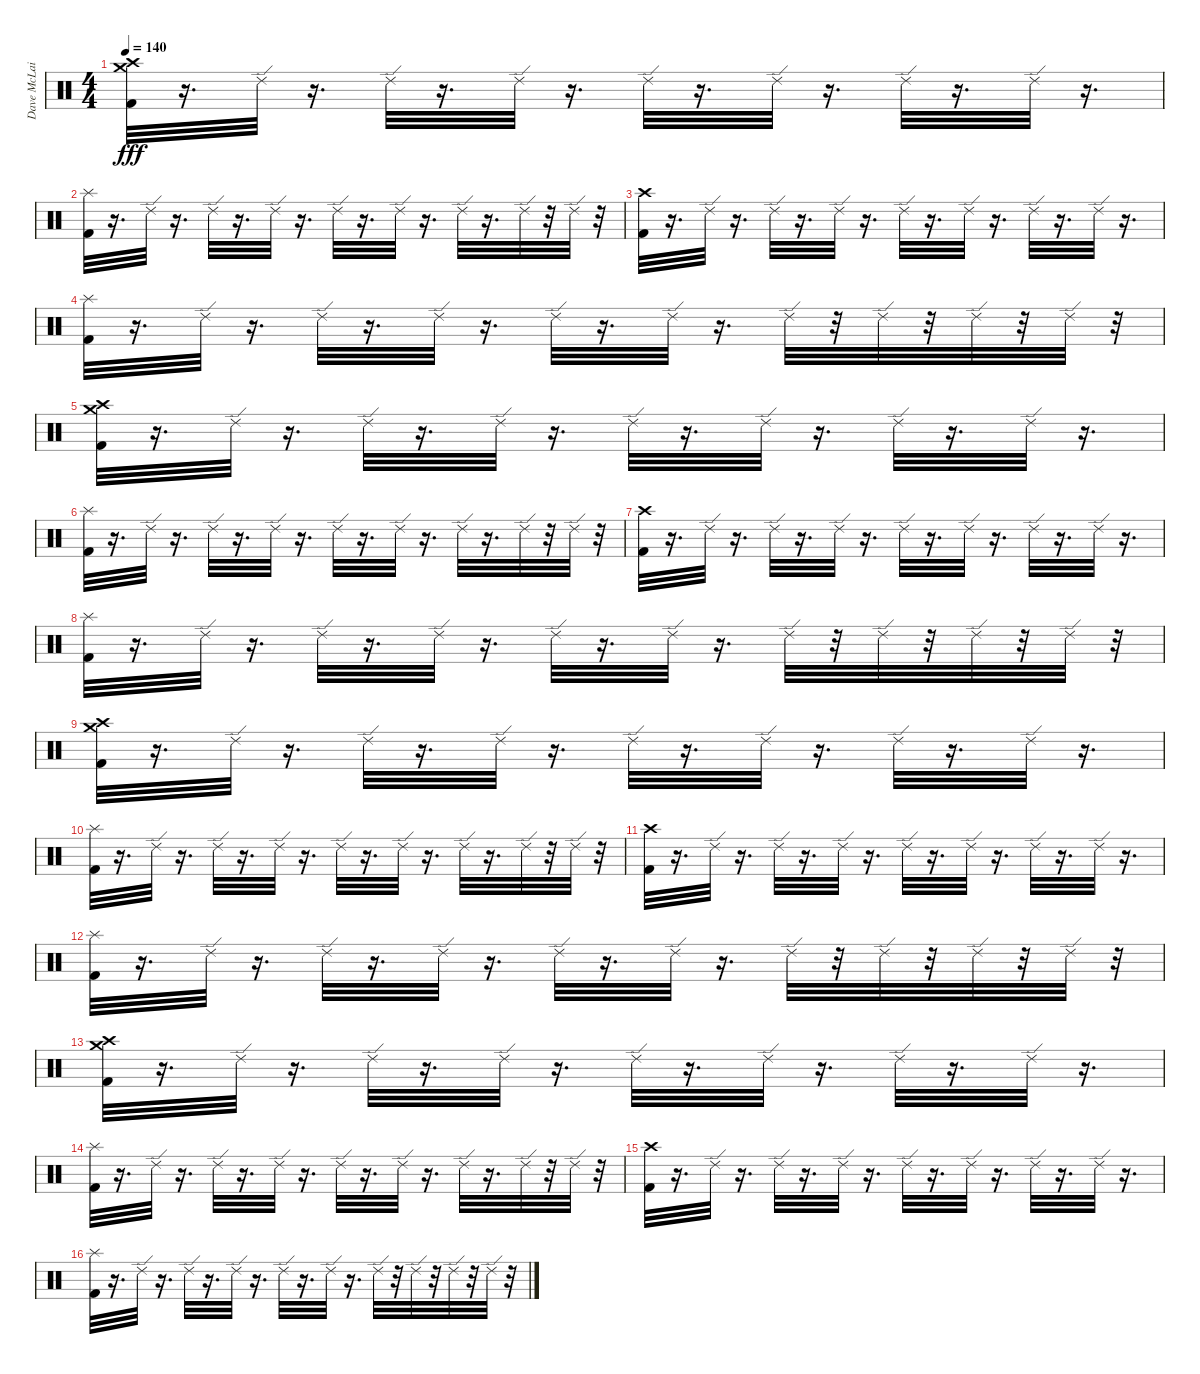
\track ("Dave McLain" "Dave McLai") {instrument percussion}
\staff {score}
\articulation defaults
\ts (4 4)
\tempo 140
\clef neutral
\ks c
("Crash medium (hit)" "Crash high (hit)" "Kick (hit) 2").32{dy fff} r.16{d} "Ride (edge) 2".32 r.16{d} "Ride (edge) 2".32 r.16{d} "Ride (edge) 2".32 r.16{d} "Ride (edge) 2".32 r.16{d} "Ride (edge) 2".32 r.16{d} "Ride (edge) 2".32 r.16{d} "Ride (edge) 2".32 r.16{d} |
("Splash (hit)" "Kick (hit) 2").32 r.16{d} "Ride (edge) 2".32 r.16{d} "Ride (edge) 2".32 r.16{d} "Ride (edge) 2".32 r.16{d} "Ride (edge) 2".32 r.16{d} "Ride (edge) 2".32 r.16{d} "Ride (edge) 2".32 r.16{d} "Ride (edge) 2".32 r.32 "Ride (edge) 2".32 r.32 |
("Crash high (hit)" "Kick (hit) 2").32 r.16{d} "Ride (edge) 2".32 r.16{d} "Ride (edge) 2".32 r.16{d} "Ride (edge) 2".32 r.16{d} "Ride (edge) 2".32 r.16{d} "Ride (edge) 2".32 r.16{d} "Ride (edge) 2".32 r.16{d} "Ride (edge) 2".32 r.16{d} |
("Splash (hit)" "Kick (hit) 2").32 r.16{d} "Ride (edge) 2".32 r.16{d} "Ride (edge) 2".32 r.16{d} "Ride (edge) 2".32 r.16{d} "Ride (edge) 2".32 r.16{d} "Ride (edge) 2".32 r.16{d} "Ride (edge) 2".32 r.32 "Ride (edge) 2".32 r.32 "Ride (edge) 2".32 r.32 "Ride (edge) 2".32 r.32 |
("Crash medium (hit)" "Crash high (hit)" "Kick (hit) 2").32 r.16{d} "Ride (edge) 2".32 r.16{d} "Ride (edge) 2".32 r.16{d} "Ride (edge) 2".32 r.16{d} "Ride (edge) 2".32 r.16{d} "Ride (edge) 2".32 r.16{d} "Ride (edge) 2".32 r.16{d} "Ride (edge) 2".32 r.16{d} |
("Splash (hit)" "Kick (hit) 2").32 r.16{d} "Ride (edge) 2".32 r.16{d} "Ride (edge) 2".32 r.16{d} "Ride (edge) 2".32 r.16{d} "Ride (edge) 2".32 r.16{d} "Ride (edge) 2".32 r.16{d} "Ride (edge) 2".32 r.16{d} "Ride (edge) 2".32 r.32 "Ride (edge) 2".32 r.32 |
("Crash high (hit)" "Kick (hit) 2").32 r.16{d} "Ride (edge) 2".32 r.16{d} "Ride (edge) 2".32 r.16{d} "Ride (edge) 2".32 r.16{d} "Ride (edge) 2".32 r.16{d} "Ride (edge) 2".32 r.16{d} "Ride (edge) 2".32 r.16{d} "Ride (edge) 2".32 r.16{d} |
("Splash (hit)" "Kick (hit) 2").32 r.16{d} "Ride (edge) 2".32 r.16{d} "Ride (edge) 2".32 r.16{d} "Ride (edge) 2".32 r.16{d} "Ride (edge) 2".32 r.16{d} "Ride (edge) 2".32 r.16{d} "Ride (edge) 2".32 r.32 "Ride (edge) 2".32 r.32 "Ride (edge) 2".32 r.32 "Ride (edge) 2".32 r.32 |
("Crash medium (hit)" "Crash high (hit)" "Kick (hit) 2").32 r.16{d} "Ride (edge) 2".32 r.16{d} "Ride (edge) 2".32 r.16{d} "Ride (edge) 2".32 r.16{d} "Ride (edge) 2".32 r.16{d} "Ride (edge) 2".32 r.16{d} "Ride (edge) 2".32 r.16{d} "Ride (edge) 2".32 r.16{d} |
("Splash (hit)" "Kick (hit) 2").32 r.16{d} "Ride (edge) 2".32 r.16{d} "Ride (edge) 2".32 r.16{d} "Ride (edge) 2".32 r.16{d} "Ride (edge) 2".32 r.16{d} "Ride (edge) 2".32 r.16{d} "Ride (edge) 2".32 r.16{d} "Ride (edge) 2".32 r.32 "Ride (edge) 2".32 r.32 |
("Crash high (hit)" "Kick (hit) 2").32 r.16{d} "Ride (edge) 2".32 r.16{d} "Ride (edge) 2".32 r.16{d} "Ride (edge) 2".32 r.16{d} "Ride (edge) 2".32 r.16{d} "Ride (edge) 2".32 r.16{d} "Ride (edge) 2".32 r.16{d} "Ride (edge) 2".32 r.16{d} |
("Splash (hit)" "Kick (hit) 2").32 r.16{d} "Ride (edge) 2".32 r.16{d} "Ride (edge) 2".32 r.16{d} "Ride (edge) 2".32 r.16{d} "Ride (edge) 2".32 r.16{d} "Ride (edge) 2".32 r.16{d} "Ride (edge) 2".32 r.32 "Ride (edge) 2".32 r.32 "Ride (edge) 2".32 r.32 "Ride (edge) 2".32 r.32 |
("Crash medium (hit)" "Crash high (hit)" "Kick (hit) 2").32 r.16{d} "Ride (edge) 2".32 r.16{d} "Ride (edge) 2".32 r.16{d} "Ride (edge) 2".32 r.16{d} "Ride (edge) 2".32 r.16{d} "Ride (edge) 2".32 r.16{d} "Ride (edge) 2".32 r.16{d} "Ride (edge) 2".32 r.16{d} |
("Splash (hit)" "Kick (hit) 2").32 r.16{d} "Ride (edge) 2".32 r.16{d} "Ride (edge) 2".32 r.16{d} "Ride (edge) 2".32 r.16{d} "Ride (edge) 2".32 r.16{d} "Ride (edge) 2".32 r.16{d} "Ride (edge) 2".32 r.16{d} "Ride (edge) 2".32 r.32 "Ride (edge) 2".32 r.32 |
("Crash high (hit)" "Kick (hit) 2").32 r.16{d} "Ride (edge) 2".32 r.16{d} "Ride (edge) 2".32 r.16{d} "Ride (edge) 2".32 r.16{d} "Ride (edge) 2".32 r.16{d} "Ride (edge) 2".32 r.16{d} "Ride (edge) 2".32 r.16{d} "Ride (edge) 2".32 r.16{d} |
("Splash (hit)" "Kick (hit) 2").32 r.16{d} "Ride (edge) 2".32 r.16{d} "Ride (edge) 2".32 r.16{d} "Ride (edge) 2".32 r.16{d} "Ride (edge) 2".32 r.16{d} "Ride (edge) 2".32 r.16{d} "Ride (edge) 2".32 r.32 "Ride (edge) 2".32 r.32 "Ride (edge) 2".32 r.32 "Ride (edge) 2".32 r.32
